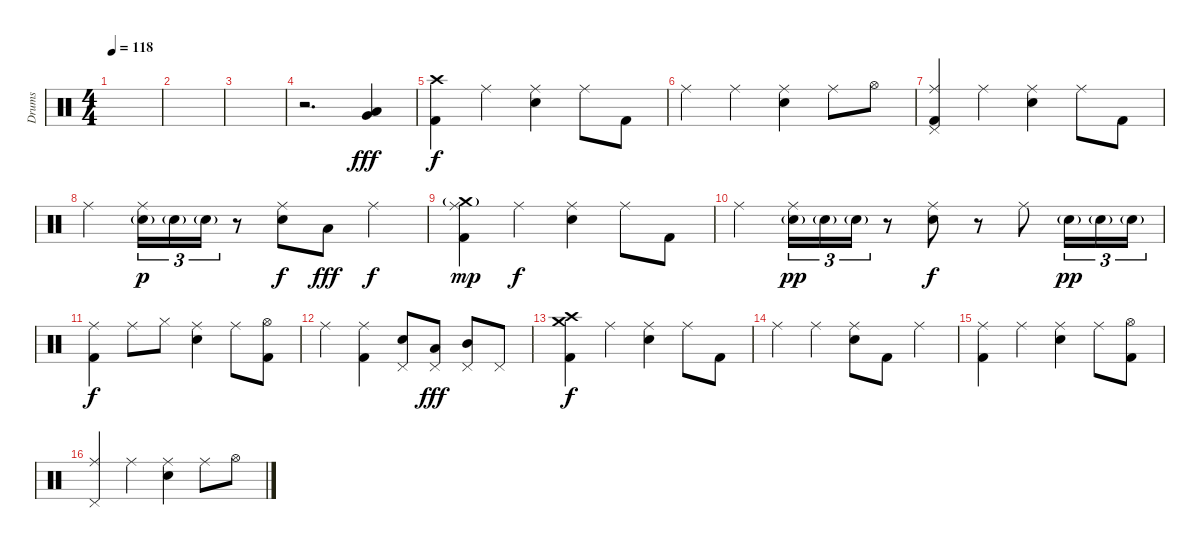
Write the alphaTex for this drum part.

\track ("Drums" "Drums") {instrument percussion}
\staff {score}
\articulation defaults
\ts (4 4)
\tempo 118
\clef neutral
\ks c
|
|
|
r.2{d} ("Low Floor Tom (hit)" "Very Low Tom (hit)").4{dy fff volume 16} |
("Crash high (hit)" "Kick (hit) 2").4{dy f} "Ride (middle)".4 ("Ride (middle)" "Electric Snare (hit)").4 "Ride (middle)".8 "Kick (hit) 2".8 |
"Ride (middle)".4 "Ride (middle)".4 ("Ride (middle)" "Electric Snare (hit)").4 "Ride (middle)".8 "Hi-Hat (open)".8 |
("Ride (middle)" "Pedal Hi-Hat (hit)" "Kick (hit) 2").4 "Ride (middle)".4 ("Ride (middle)" "Electric Snare (hit)").4 "Ride (middle)".8 "Kick (hit) 2".8 |
"Ride (middle)".4 ("Ride (middle)" "Electric Snare (hit)"{g}).16{tu (3 2) dy p} "Electric Snare (hit)"{g}.16{tu (3 2)} "Electric Snare (hit)"{g}.16{tu (3 2)} r.8 ("Ride (middle)" "Electric Snare (hit)").8{dy f} "Low Tom (hit)".8{dy fff} "Ride (middle)".4{dy f} |
("Crash medium (hit)"{g} "Ride (middle)" "Kick (hit) 2").4{dy mp} "Ride (middle)".4{dy f} ("Ride (middle)" "Electric Snare (hit)").4 "Ride (middle)".8 "Kick (hit) 2".8 |
"Ride (middle)".4 ("Ride (middle)" "Electric Snare (hit)"{g}).16{tu (3 2) dy pp} "Electric Snare (hit)"{g}.16{tu (3 2)} "Electric Snare (hit)"{g}.16{tu (3 2)} r.8 ("Ride (middle)" "Electric Snare (hit)").8{dy f} r.8 "Ride (middle)".8 "Electric Snare (hit)"{g}.16{tu (3 2) dy pp} "Electric Snare (hit)"{g}.16{tu (3 2)} "Electric Snare (hit)"{g}.16{tu (3 2)} |
("Ride (middle)" "Kick (hit) 2").4{dy f} "Ride (middle)".8 "Hi-Hat (closed)".8 ("Ride (middle)" "Electric Snare (hit)").4 "Ride (middle)".8 ("Hi-Hat (open)" "Kick (hit) 2").8 |
"Ride (middle)".4 ("Ride (middle)" "Kick (hit) 2").4 ("Pedal Hi-Hat (hit)" "Electric Snare (hit)").8 ("Pedal Hi-Hat (hit)" "Low Tom (hit)").8{dy fff} ("Pedal Hi-Hat (hit)" "Mid Tom (hit)").8 "Pedal Hi-Hat (hit)".8 |
("Crash high (hit)" "Crash medium (hit)" "Kick (hit) 2").4{dy f} "Ride (middle)".4 ("Ride (middle)" "Electric Snare (hit)").4 "Ride (middle)".8 "Kick (hit) 2".8 |
"Ride (middle)".4 "Ride (middle)".4 ("Ride (middle)" "Electric Snare (hit)").8 "Kick (hit) 2".8 "Ride (middle)".4 |
("Ride (middle)" "Kick (hit) 2").4 "Ride (middle)".4 ("Ride (middle)" "Electric Snare (hit)").4 "Ride (middle)".8 ("Hi-Hat (open)" "Kick (hit) 2").8 |
("Ride (middle)" "Pedal Hi-Hat (hit)").4 "Ride (middle)".4 ("Ride (middle)" "Electric Snare (hit)").4 "Ride (middle)".8 "Hi-Hat (open)".8
